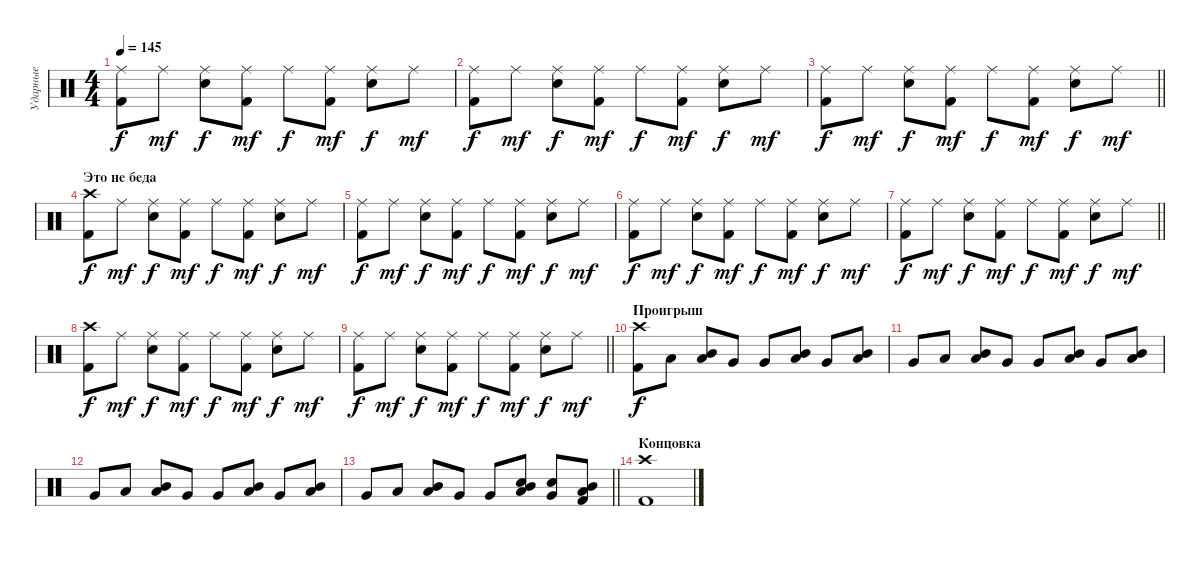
\track ("Ударные" "Ударные") {instrument percussion}
\staff {score}
\articulation defaults
\ts (4 4)
\tempo 145
\clef neutral
\ks c
("Ride (middle)" "Kick (hit) 2").8{dy f} "Ride (middle)".8{dy mf} ("Ride (middle)" "Snare (hit) 2").8{dy f} ("Ride (middle)" "Kick (hit) 2").8{dy mf} "Ride (middle)".8{dy f} ("Ride (middle)" "Kick (hit) 2").8{dy mf} ("Ride (middle)" "Snare (hit) 2").8{dy f} "Ride (middle)".8{dy mf} |
("Ride (middle)" "Kick (hit) 2").8{dy f} "Ride (middle)".8{dy mf} ("Ride (middle)" "Snare (hit) 2").8{dy f} ("Ride (middle)" "Kick (hit) 2").8{dy mf} "Ride (middle)".8{dy f} ("Ride (middle)" "Kick (hit) 2").8{dy mf} ("Ride (middle)" "Snare (hit) 2").8{dy f} "Ride (middle)".8{dy mf} |
\barLineRight lightlight
("Ride (middle)" "Kick (hit) 2").8{dy f} "Ride (middle)".8{dy mf} ("Ride (middle)" "Snare (hit) 2").8{dy f} ("Ride (middle)" "Kick (hit) 2").8{dy mf} "Ride (middle)".8{dy f} ("Ride (middle)" "Kick (hit) 2").8{dy mf} ("Ride (middle)" "Snare (hit) 2").8{dy f} "Ride (middle)".8{dy mf} |
\section ("" "Это не беда")
("Crash high (hit)" "Kick (hit) 2").8{dy f} "Ride (middle)".8{dy mf} ("Ride (middle)" "Snare (hit) 2").8{dy f} ("Ride (middle)" "Kick (hit) 2").8{dy mf} "Ride (middle)".8{dy f} ("Ride (middle)" "Kick (hit) 2").8{dy mf} ("Ride (middle)" "Snare (hit) 2").8{dy f} "Ride (middle)".8{dy mf} |
("Ride (middle)" "Kick (hit) 2").8{dy f} "Ride (middle)".8{dy mf} ("Ride (middle)" "Snare (hit) 2").8{dy f} ("Ride (middle)" "Kick (hit) 2").8{dy mf} "Ride (middle)".8{dy f} ("Ride (middle)" "Kick (hit) 2").8{dy mf} ("Ride (middle)" "Snare (hit) 2").8{dy f} "Ride (middle)".8{dy mf} |
("Ride (middle)" "Kick (hit) 2").8{dy f} "Ride (middle)".8{dy mf} ("Ride (middle)" "Snare (hit) 2").8{dy f} ("Ride (middle)" "Kick (hit) 2").8{dy mf} "Ride (middle)".8{dy f} ("Ride (middle)" "Kick (hit) 2").8{dy mf} ("Ride (middle)" "Snare (hit) 2").8{dy f} "Ride (middle)".8{dy mf} |
\barLineRight lightlight
("Ride (middle)" "Kick (hit) 2").8{dy f} "Ride (middle)".8{dy mf} ("Ride (middle)" "Snare (hit) 2").8{dy f} ("Ride (middle)" "Kick (hit) 2").8{dy mf} "Ride (middle)".8{dy f} ("Ride (middle)" "Kick (hit) 2").8{dy mf} ("Ride (middle)" "Snare (hit) 2").8{dy f} "Ride (middle)".8{dy mf} |
("Crash high (hit)" "Kick (hit) 2").8{dy f} "Ride (middle)".8{dy mf} ("Ride (middle)" "Snare (hit) 2").8{dy f} ("Ride (middle)" "Kick (hit) 2").8{dy mf} "Ride (middle)".8{dy f} ("Ride (middle)" "Kick (hit) 2").8{dy mf} ("Ride (middle)" "Snare (hit) 2").8{dy f} "Ride (middle)".8{dy mf} |
\barLineRight lightlight
("Ride (middle)" "Kick (hit) 2").8{dy f} "Ride (middle)".8{dy mf} ("Ride (middle)" "Snare (hit) 2").8{dy f} ("Ride (middle)" "Kick (hit) 2").8{dy mf} "Ride (middle)".8{dy f} ("Ride (middle)" "Kick (hit) 2").8{dy mf} ("Ride (middle)" "Snare (hit) 2").8{dy f} "Ride (middle)".8{dy mf} |
\section ("" "Проигрыш")
("Kick (hit) 2" "Crash high (hit)").8{dy f} "Low Tom (hit)".8 ("Low Tom (hit)" "Mid Tom (hit)").8 "Very Low Tom (hit)".8 "Very Low Tom (hit)".8 ("Low Tom (hit)" "Mid Tom (hit)").8 "Very Low Tom (hit)".8 ("Low Tom (hit)" "Mid Tom (hit)").8 |
"Very Low Tom (hit)".8 "Low Tom (hit)".8 ("Low Tom (hit)" "Mid Tom (hit)").8 "Very Low Tom (hit)".8 "Very Low Tom (hit)".8 ("Low Tom (hit)" "Mid Tom (hit)").8 "Very Low Tom (hit)".8 ("Low Tom (hit)" "Mid Tom (hit)").8 |
"Very Low Tom (hit)".8 "Low Tom (hit)".8 ("Low Tom (hit)" "Mid Tom (hit)").8 "Very Low Tom (hit)".8 "Very Low Tom (hit)".8 ("Low Tom (hit)" "Mid Tom (hit)").8 "Very Low Tom (hit)".8 ("Low Tom (hit)" "Mid Tom (hit)").8 |
\barLineRight lightlight "Very Low Tom (hit)".8 "Low Tom (hit)".8
("Low Tom (hit)" "Mid Tom (hit)").8 "Very Low Tom (hit)".8 "Very Low Tom (hit)".8 ("Snare (hit) 2" "Low Tom (hit)" "Mid Tom (hit)").8 ("Very Low Tom (hit)" "Snare (hit) 2").8 ("Low Tom (hit)" "Kick (hit) 2" "Mid Tom (hit)").8 |
\section ("" "Концовка")
("Kick (hit) 2" "Crash high (hit)").1
